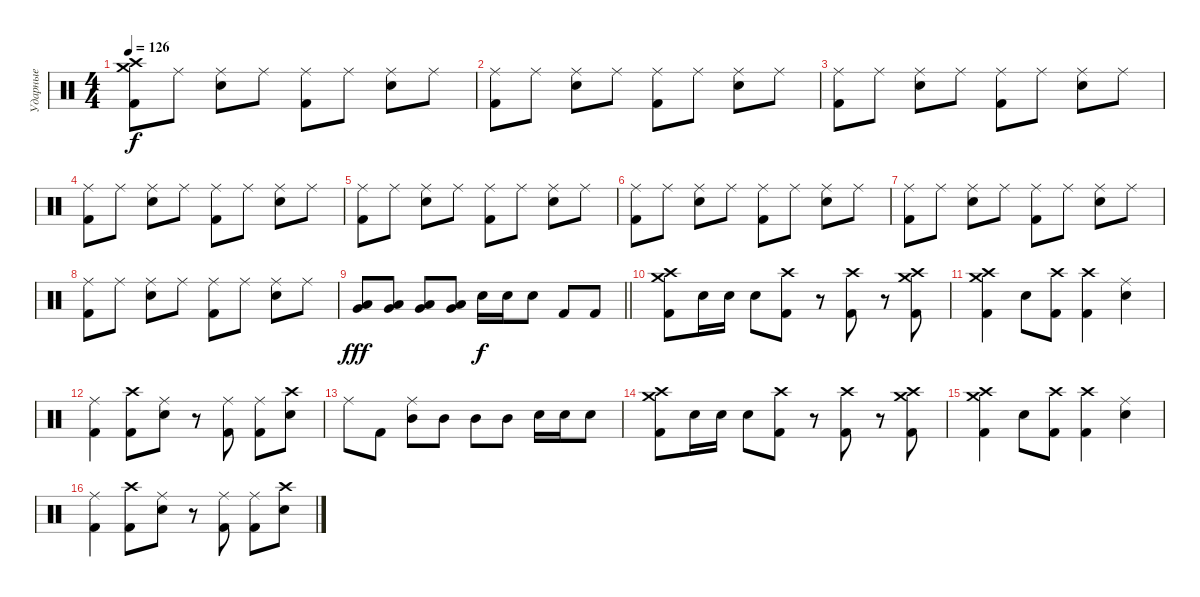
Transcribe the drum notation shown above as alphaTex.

\track ("Ударные" "Ударные") {instrument percussion}
\staff {score}
\articulation defaults
\ts (4 4)
\tempo 126
\clef neutral
\ks c
("Kick (hit) 2" "Crash high (hit)" "Crash medium (hit)").8{dy f} "Ride (middle)".8 ("Snare (hit) 2" "Ride (middle)").8 "Ride (middle)".8 ("Kick (hit) 2" "Ride (middle)").8 "Ride (middle)".8 ("Snare (hit) 2" "Ride (middle)").8 "Ride (middle)".8 |
("Kick (hit) 2" "Ride (middle)").8 "Ride (middle)".8 ("Snare (hit) 2" "Ride (middle)").8 "Ride (middle)".8 ("Kick (hit) 2" "Ride (middle)").8 "Ride (middle)".8 ("Snare (hit) 2" "Ride (middle)").8 "Ride (middle)".8 |
("Kick (hit) 2" "Ride (middle)").8 "Ride (middle)".8 ("Snare (hit) 2" "Ride (middle)").8 "Ride (middle)".8 ("Kick (hit) 2" "Ride (middle)").8 "Ride (middle)".8 ("Snare (hit) 2" "Ride (middle)").8 "Ride (middle)".8 |
("Kick (hit) 2" "Ride (middle)").8 "Ride (middle)".8 ("Snare (hit) 2" "Ride (middle)").8 "Ride (middle)".8 ("Kick (hit) 2" "Ride (middle)").8 "Ride (middle)".8 ("Snare (hit) 2" "Ride (middle)").8 "Ride (middle)".8 |
("Kick (hit) 2" "Ride (middle)").8 "Ride (middle)".8 ("Snare (hit) 2" "Ride (middle)").8 "Ride (middle)".8 ("Kick (hit) 2" "Ride (middle)").8 "Ride (middle)".8 ("Snare (hit) 2" "Ride (middle)").8 "Ride (middle)".8 |
("Kick (hit) 2" "Ride (middle)").8 "Ride (middle)".8 ("Snare (hit) 2" "Ride (middle)").8 "Ride (middle)".8 ("Kick (hit) 2" "Ride (middle)").8 "Ride (middle)".8 ("Snare (hit) 2" "Ride (middle)").8 "Ride (middle)".8 |
("Kick (hit) 2" "Ride (middle)").8 "Ride (middle)".8 ("Snare (hit) 2" "Ride (middle)").8 "Ride (middle)".8 ("Kick (hit) 2" "Ride (middle)").8 "Ride (middle)".8 ("Snare (hit) 2" "Ride (middle)").8 "Ride (middle)".8 |
("Kick (hit) 2" "Ride (middle)").8 "Ride (middle)".8 ("Snare (hit) 2" "Ride (middle)").8 "Ride (middle)".8 ("Kick (hit) 2" "Ride (middle)").8 "Ride (middle)".8 ("Snare (hit) 2" "Ride (middle)").8 "Ride (middle)".8 |
\barLineRight lightlight
("Low Tom (hit)" "Very Low Tom (hit)").8{dy fff} ("Low Tom (hit)" "Very Low Tom (hit)").8 ("Low Tom (hit)" "Very Low Tom (hit)").8 ("Low Tom (hit)" "Very Low Tom (hit)").8 "Snare (hit) 2".16{dy f} "Snare (hit) 2".16 "Snare (hit) 2".8 "Kick (hit) 2".8 "Kick (hit) 2".8 |
("Kick (hit) 2" "Crash high (hit)" "Crash medium (hit)").8 "Snare (hit) 2".16 "Electric Snare (hit)".16 "Snare (hit) 2".8 ("Kick (hit) 2" "Crash high (hit)").8 r.8 ("Kick (hit) 2" "Crash high (hit)").8 r.8 ("Kick (hit) 2" "Crash medium (hit)" "Crash high (hit)").8 |
("Kick (hit) 2" "Crash high (hit)" "Crash medium (hit)").4 "Snare (hit) 2".8 ("Kick (hit) 2" "Crash high (hit)").8 ("Kick (hit) 2" "Crash high (hit)").4 ("Snare (hit) 2" "Ride (middle)").4 |
("Kick (hit) 2" "Ride (middle)").4 ("Kick (hit) 2" "Crash high (hit)").8 ("Snare (hit) 2" "Ride (middle)").8 r.8 ("Kick (hit) 2" "Ride (middle)").8 ("Kick (hit) 2" "Ride (middle)").8 ("Snare (hit) 2" "Crash high (hit)").8 |
"Ride (middle)".8 "Kick (hit) 2".8 ("Mid Tom (hit)" "Ride (middle)").8 "Mid Tom (hit)".8 "Mid Tom (hit)".8 "Mid Tom (hit)".8 "Electric Snare (hit)".16 "Electric Snare (hit)".16 "Electric Snare (hit)".8 |
("Kick (hit) 2" "Crash high (hit)" "Crash medium (hit)").8 "Snare (hit) 2".16 "Electric Snare (hit)".16 "Snare (hit) 2".8 ("Kick (hit) 2" "Crash high (hit)").8 r.8 ("Kick (hit) 2" "Crash high (hit)").8 r.8 ("Kick (hit) 2" "Crash medium (hit)" "Crash high (hit)").8 |
("Kick (hit) 2" "Crash high (hit)" "Crash medium (hit)").4 "Snare (hit) 2".8 ("Kick (hit) 2" "Crash high (hit)").8 ("Kick (hit) 2" "Crash high (hit)").4 ("Snare (hit) 2" "Ride (middle)").4 |
("Kick (hit) 2" "Ride (middle)").4 ("Kick (hit) 2" "Crash high (hit)").8 ("Snare (hit) 2" "Ride (middle)").8 r.8 ("Kick (hit) 2" "Ride (middle)").8 ("Kick (hit) 2" "Ride (middle)").8 ("Snare (hit) 2" "Crash high (hit)").8
